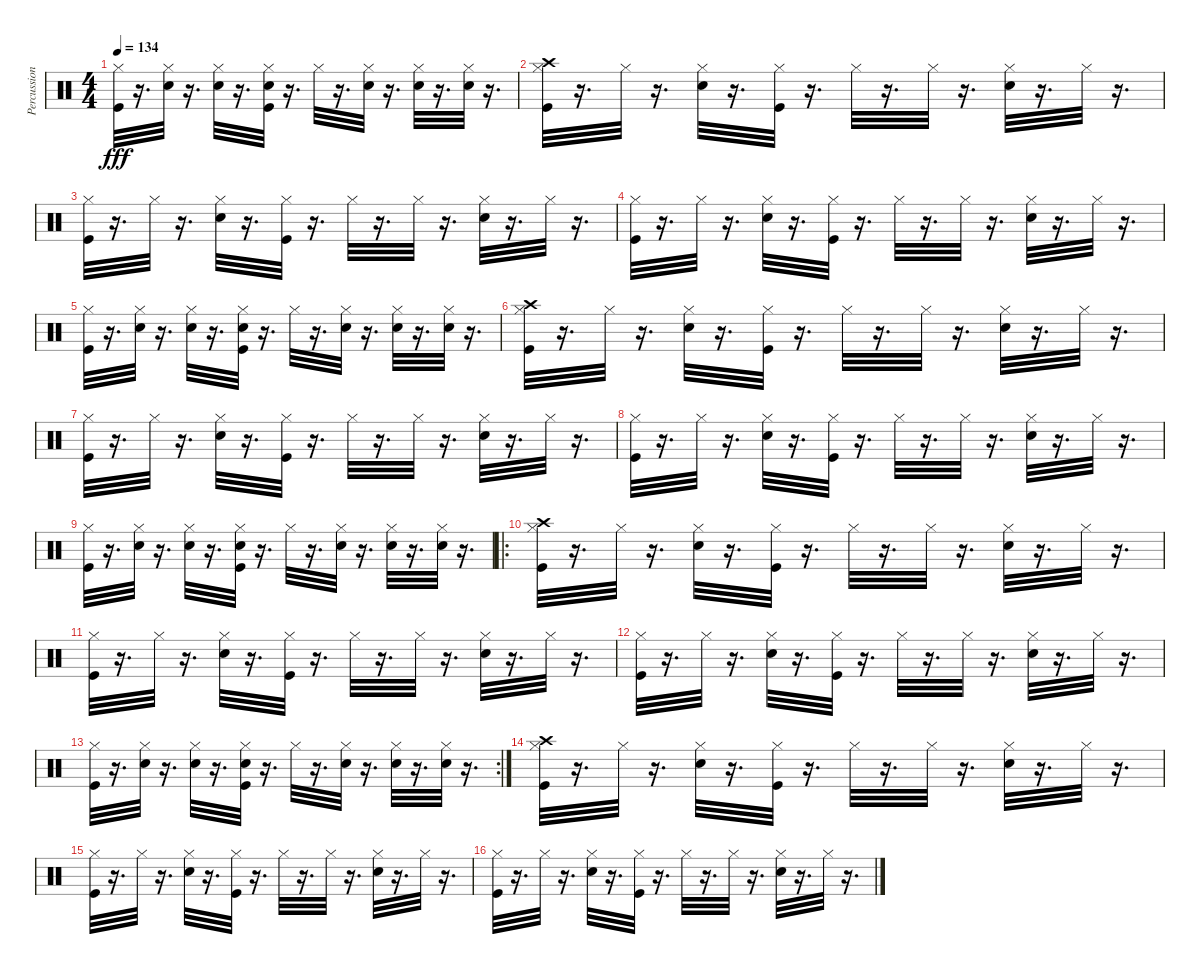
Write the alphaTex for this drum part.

\track ("Percussion (Rico)" "Percussion") {instrument percussion}
\staff {score}
\articulation defaults
\ts (4 4)
\tempo 134
\clef neutral
\ks c
("Kick (hit)" "Hi-Hat (closed)").32{dy fff} r.16{d} ("Hi-Hat (closed)" "Electric Snare (hit)").32 r.16{d} ("Electric Snare (hit)" "Hi-Hat (closed)").32 r.16{d} ("Kick (hit)" "Hi-Hat (closed)" "Electric Snare (hit)").32 r.16{d} "Hi-Hat (closed)".32 r.16{d} ("Hi-Hat (closed)" "Electric Snare (hit)").32 r.16{d} ("Electric Snare (hit)" "Hi-Hat (closed)").32 r.16{d} ("Hi-Hat (closed)" "Electric Snare (hit)").32 r.16{d} |
("Kick (hit)" "Hi-Hat (closed)" "Crash high (hit)").32 r.16{d} "Hi-Hat (closed)".32 r.16{d} ("Electric Snare (hit)" "Hi-Hat (closed)").32 r.16{d} ("Kick (hit)" "Hi-Hat (closed)").32 r.16{d} "Hi-Hat (closed)".32 r.16{d} "Hi-Hat (closed)".32 r.16{d} ("Electric Snare (hit)" "Hi-Hat (closed)").32 r.16{d} "Hi-Hat (closed)".32 r.16{d} |
("Kick (hit)" "Hi-Hat (closed)").32 r.16{d} "Hi-Hat (closed)".32 r.16{d} ("Electric Snare (hit)" "Hi-Hat (closed)").32 r.16{d} ("Kick (hit)" "Hi-Hat (closed)").32 r.16{d} "Hi-Hat (closed)".32 r.16{d} "Hi-Hat (closed)".32 r.16{d} ("Electric Snare (hit)" "Hi-Hat (closed)").32 r.16{d} "Hi-Hat (closed)".32 r.16{d} |
("Kick (hit)" "Hi-Hat (closed)").32 r.16{d} "Hi-Hat (closed)".32 r.16{d} ("Electric Snare (hit)" "Hi-Hat (closed)").32 r.16{d} ("Kick (hit)" "Hi-Hat (closed)").32 r.16{d} "Hi-Hat (closed)".32 r.16{d} "Hi-Hat (closed)".32 r.16{d} ("Electric Snare (hit)" "Hi-Hat (closed)").32 r.16{d} "Hi-Hat (closed)".32 r.16{d} |
("Kick (hit)" "Hi-Hat (closed)").32 r.16{d} ("Hi-Hat (closed)" "Electric Snare (hit)").32 r.16{d} ("Electric Snare (hit)" "Hi-Hat (closed)").32 r.16{d} ("Kick (hit)" "Hi-Hat (closed)" "Electric Snare (hit)").32 r.16{d} "Hi-Hat (closed)".32 r.16{d} ("Hi-Hat (closed)" "Electric Snare (hit)").32 r.16{d} ("Electric Snare (hit)" "Hi-Hat (closed)").32 r.16{d} ("Hi-Hat (closed)" "Electric Snare (hit)").32 r.16{d} |
("Kick (hit)" "Hi-Hat (closed)" "Crash high (hit)").32 r.16{d} "Hi-Hat (closed)".32 r.16{d} ("Electric Snare (hit)" "Hi-Hat (closed)").32 r.16{d} ("Kick (hit)" "Hi-Hat (closed)").32 r.16{d} "Hi-Hat (closed)".32 r.16{d} "Hi-Hat (closed)".32 r.16{d} ("Electric Snare (hit)" "Hi-Hat (closed)").32 r.16{d} "Hi-Hat (closed)".32 r.16{d} |
("Kick (hit)" "Hi-Hat (closed)").32 r.16{d} "Hi-Hat (closed)".32 r.16{d} ("Electric Snare (hit)" "Hi-Hat (closed)").32 r.16{d} ("Kick (hit)" "Hi-Hat (closed)").32 r.16{d} "Hi-Hat (closed)".32 r.16{d} "Hi-Hat (closed)".32 r.16{d} ("Electric Snare (hit)" "Hi-Hat (closed)").32 r.16{d} "Hi-Hat (closed)".32 r.16{d} |
("Kick (hit)" "Hi-Hat (closed)").32 r.16{d} "Hi-Hat (closed)".32 r.16{d} ("Electric Snare (hit)" "Hi-Hat (closed)").32 r.16{d} ("Kick (hit)" "Hi-Hat (closed)").32 r.16{d} "Hi-Hat (closed)".32 r.16{d} "Hi-Hat (closed)".32 r.16{d} ("Electric Snare (hit)" "Hi-Hat (closed)").32 r.16{d} "Hi-Hat (closed)".32 r.16{d} |
("Kick (hit)" "Hi-Hat (closed)").32 r.16{d} ("Hi-Hat (closed)" "Electric Snare (hit)").32 r.16{d} ("Electric Snare (hit)" "Hi-Hat (closed)").32 r.16{d} ("Kick (hit)" "Hi-Hat (closed)" "Electric Snare (hit)").32 r.16{d} "Hi-Hat (closed)".32 r.16{d} ("Hi-Hat (closed)" "Electric Snare (hit)").32 r.16{d} ("Electric Snare (hit)" "Hi-Hat (closed)").32 r.16{d} ("Hi-Hat (closed)" "Electric Snare (hit)").32 r.16{d} |
\ro
("Kick (hit)" "Hi-Hat (closed)" "Crash high (hit)").32 r.16{d} "Hi-Hat (closed)".32 r.16{d} ("Electric Snare (hit)" "Hi-Hat (closed)").32 r.16{d} ("Kick (hit)" "Hi-Hat (closed)").32 r.16{d} "Hi-Hat (closed)".32 r.16{d} "Hi-Hat (closed)".32 r.16{d} ("Electric Snare (hit)" "Hi-Hat (closed)").32 r.16{d} "Hi-Hat (closed)".32 r.16{d} |
("Kick (hit)" "Hi-Hat (closed)").32 r.16{d} "Hi-Hat (closed)".32 r.16{d} ("Electric Snare (hit)" "Hi-Hat (closed)").32 r.16{d} ("Kick (hit)" "Hi-Hat (closed)").32 r.16{d} "Hi-Hat (closed)".32 r.16{d} "Hi-Hat (closed)".32 r.16{d} ("Electric Snare (hit)" "Hi-Hat (closed)").32 r.16{d} "Hi-Hat (closed)".32 r.16{d} |
("Kick (hit)" "Hi-Hat (closed)").32 r.16{d} "Hi-Hat (closed)".32 r.16{d} ("Electric Snare (hit)" "Hi-Hat (closed)").32 r.16{d} ("Kick (hit)" "Hi-Hat (closed)").32 r.16{d} "Hi-Hat (closed)".32 r.16{d} "Hi-Hat (closed)".32 r.16{d} ("Electric Snare (hit)" "Hi-Hat (closed)").32 r.16{d} "Hi-Hat (closed)".32 r.16{d} |
\rc 2
("Kick (hit)" "Hi-Hat (closed)").32 r.16{d} ("Hi-Hat (closed)" "Electric Snare (hit)").32 r.16{d} ("Electric Snare (hit)" "Hi-Hat (closed)").32 r.16{d} ("Kick (hit)" "Hi-Hat (closed)" "Electric Snare (hit)").32 r.16{d} "Hi-Hat (closed)".32 r.16{d} ("Hi-Hat (closed)" "Electric Snare (hit)").32 r.16{d} ("Electric Snare (hit)" "Hi-Hat (closed)").32 r.16{d} ("Hi-Hat (closed)" "Electric Snare (hit)").32 r.16{d} |
("Kick (hit)" "Hi-Hat (closed)" "Crash high (hit)").32 r.16{d} "Hi-Hat (closed)".32 r.16{d} ("Electric Snare (hit)" "Hi-Hat (closed)").32 r.16{d} ("Kick (hit)" "Hi-Hat (closed)").32 r.16{d} "Hi-Hat (closed)".32 r.16{d} "Hi-Hat (closed)".32 r.16{d} ("Electric Snare (hit)" "Hi-Hat (closed)").32 r.16{d} "Hi-Hat (closed)".32 r.16{d} |
("Kick (hit)" "Hi-Hat (closed)").32 r.16{d} "Hi-Hat (closed)".32 r.16{d} ("Electric Snare (hit)" "Hi-Hat (closed)").32 r.16{d} ("Kick (hit)" "Hi-Hat (closed)").32 r.16{d} "Hi-Hat (closed)".32 r.16{d} "Hi-Hat (closed)".32 r.16{d} ("Electric Snare (hit)" "Hi-Hat (closed)").32 r.16{d} "Hi-Hat (closed)".32 r.16{d} |
("Kick (hit)" "Hi-Hat (closed)").32 r.16{d} "Hi-Hat (closed)".32 r.16{d} ("Electric Snare (hit)" "Hi-Hat (closed)").32 r.16{d} ("Kick (hit)" "Hi-Hat (closed)").32 r.16{d} "Hi-Hat (closed)".32 r.16{d} "Hi-Hat (closed)".32 r.16{d} ("Electric Snare (hit)" "Hi-Hat (closed)").32 r.16{d} "Hi-Hat (closed)".32 r.16{d}
